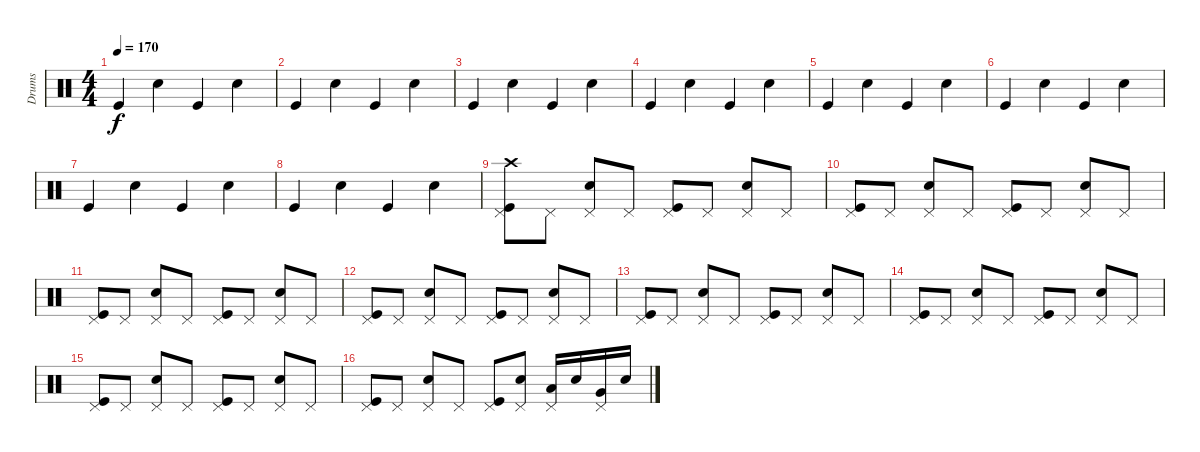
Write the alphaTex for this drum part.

\track ("Drums" "Drums") {instrument percussion}
\staff {score}
\articulation defaults
\ts (4 4)
\tempo 170
\clef neutral
\ks c "Kick (hit)".4{dy f} "Electric Snare (hit)".4 "Kick (hit)".4 "Electric Snare (hit)".4
|
"Kick (hit)".4 "Electric Snare (hit)".4 "Kick (hit)".4 "Electric Snare (hit)".4 |
"Kick (hit)".4 "Electric Snare (hit)".4 "Kick (hit)".4 "Electric Snare (hit)".4 |
"Kick (hit)".4 "Electric Snare (hit)".4 "Kick (hit)".4 "Electric Snare (hit)".4 |
"Kick (hit)".4 "Electric Snare (hit)".4 "Kick (hit)".4 "Electric Snare (hit)".4 |
"Kick (hit)".4 "Electric Snare (hit)".4 "Kick (hit)".4 "Electric Snare (hit)".4 |
"Kick (hit)".4 "Electric Snare (hit)".4 "Kick (hit)".4 "Electric Snare (hit)".4 |
"Kick (hit)".4 "Electric Snare (hit)".4 "Kick (hit)".4 "Electric Snare (hit)".4 |
("Pedal Hi-Hat (hit)" "Crash high (hit)" "Kick (hit)").8 "Pedal Hi-Hat (hit)".8 ("Pedal Hi-Hat (hit)" "Electric Snare (hit)").8 "Pedal Hi-Hat (hit)".8 ("Pedal Hi-Hat (hit)" "Kick (hit)").8 "Pedal Hi-Hat (hit)".8 ("Pedal Hi-Hat (hit)" "Electric Snare (hit)").8 "Pedal Hi-Hat (hit)".8 |
("Pedal Hi-Hat (hit)" "Kick (hit)").8 "Pedal Hi-Hat (hit)".8 ("Pedal Hi-Hat (hit)" "Electric Snare (hit)").8 "Pedal Hi-Hat (hit)".8 ("Pedal Hi-Hat (hit)" "Kick (hit)").8 "Pedal Hi-Hat (hit)".8 ("Pedal Hi-Hat (hit)" "Electric Snare (hit)").8 "Pedal Hi-Hat (hit)".8 |
("Pedal Hi-Hat (hit)" "Kick (hit)").8 "Pedal Hi-Hat (hit)".8 ("Pedal Hi-Hat (hit)" "Electric Snare (hit)").8 "Pedal Hi-Hat (hit)".8 ("Pedal Hi-Hat (hit)" "Kick (hit)").8 "Pedal Hi-Hat (hit)".8 ("Pedal Hi-Hat (hit)" "Electric Snare (hit)").8 "Pedal Hi-Hat (hit)".8 |
("Pedal Hi-Hat (hit)" "Kick (hit)").8 "Pedal Hi-Hat (hit)".8 ("Pedal Hi-Hat (hit)" "Electric Snare (hit)").8 "Pedal Hi-Hat (hit)".8 ("Pedal Hi-Hat (hit)" "Kick (hit)").8 "Pedal Hi-Hat (hit)".8 ("Pedal Hi-Hat (hit)" "Electric Snare (hit)").8 "Pedal Hi-Hat (hit)".8 |
("Pedal Hi-Hat (hit)" "Kick (hit)").8 "Pedal Hi-Hat (hit)".8 ("Pedal Hi-Hat (hit)" "Electric Snare (hit)").8 "Pedal Hi-Hat (hit)".8 ("Pedal Hi-Hat (hit)" "Kick (hit)").8 "Pedal Hi-Hat (hit)".8 ("Pedal Hi-Hat (hit)" "Electric Snare (hit)").8 "Pedal Hi-Hat (hit)".8 |
("Pedal Hi-Hat (hit)" "Kick (hit)").8 "Pedal Hi-Hat (hit)".8 ("Pedal Hi-Hat (hit)" "Electric Snare (hit)").8 "Pedal Hi-Hat (hit)".8 ("Pedal Hi-Hat (hit)" "Kick (hit)").8 "Pedal Hi-Hat (hit)".8 ("Pedal Hi-Hat (hit)" "Electric Snare (hit)").8 "Pedal Hi-Hat (hit)".8 |
("Pedal Hi-Hat (hit)" "Kick (hit)").8 "Pedal Hi-Hat (hit)".8 ("Pedal Hi-Hat (hit)" "Electric Snare (hit)").8 "Pedal Hi-Hat (hit)".8 ("Pedal Hi-Hat (hit)" "Kick (hit)").8 "Pedal Hi-Hat (hit)".8 ("Pedal Hi-Hat (hit)" "Electric Snare (hit)").8 "Pedal Hi-Hat (hit)".8 |
("Pedal Hi-Hat (hit)" "Kick (hit)").8 "Pedal Hi-Hat (hit)".8 ("Pedal Hi-Hat (hit)" "Electric Snare (hit)").8 "Pedal Hi-Hat (hit)".8 ("Pedal Hi-Hat (hit)" "Kick (hit)").8 ("Electric Snare (hit)" "Pedal Hi-Hat (hit)").8 ("Low Tom (hit)" "Pedal Hi-Hat (hit)").16 "Electric Snare (hit)".16 ("Very Low Tom (hit)" "Pedal Hi-Hat (hit)").16 "Electric Snare (hit)".16
